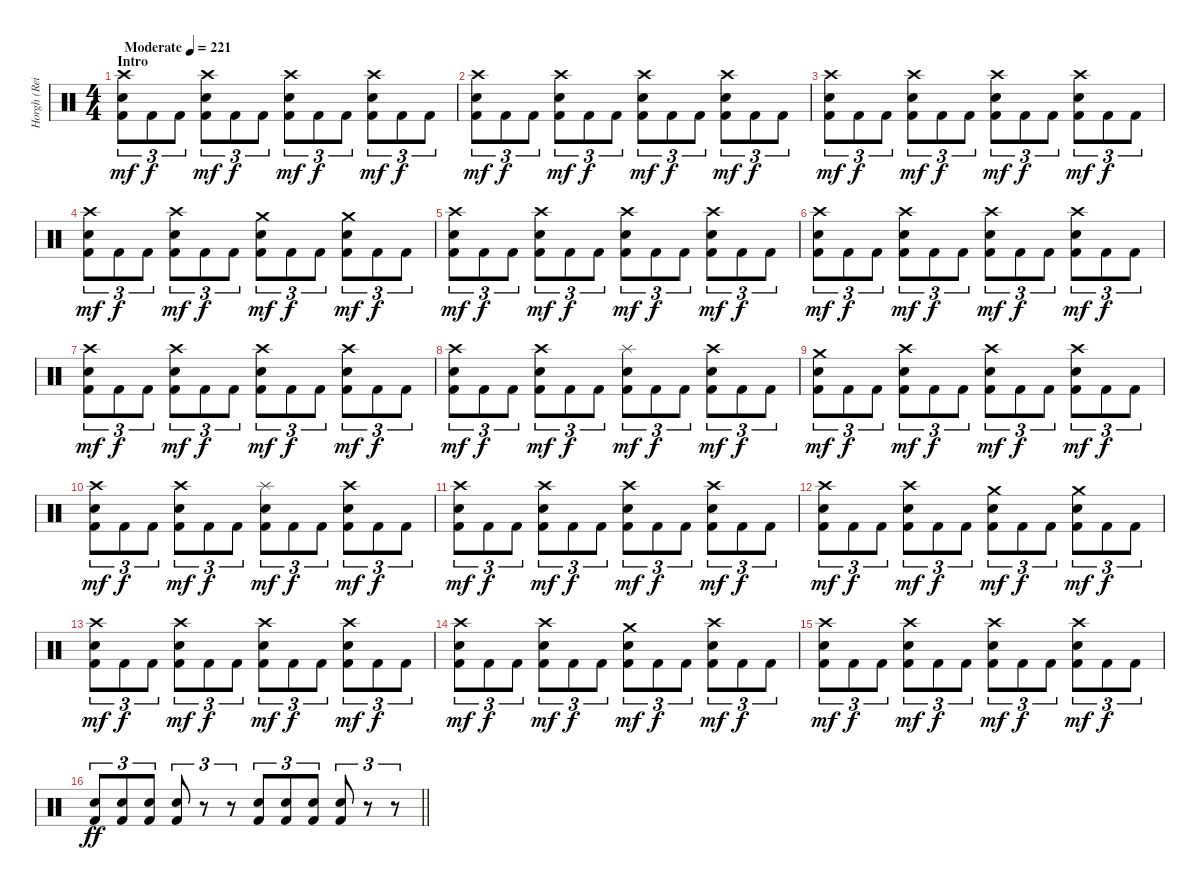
\track ("Horgh (Reidar Horghagen)" "Horgh (Rei") {instrument percussion}
\staff {score}
\articulation defaults
\ts (4 4)
\section ("" "Intro")
\tempo (221 "Moderate")
\clef neutral
\ks c
("Crash high (hit)" "Snare (hit) 2" "Kick (hit) 2").8{tu (3 2) dy mf} "Kick (hit) 2".8{tu (3 2) dy f} "Kick (hit) 2".8{tu (3 2)} ("Crash high (hit)" "Snare (hit) 2" "Kick (hit) 2").8{tu (3 2) dy mf} "Kick (hit) 2".8{tu (3 2) dy f} "Kick (hit) 2".8{tu (3 2)} ("Crash high (hit)" "Snare (hit) 2" "Kick (hit) 2").8{tu (3 2) dy mf} "Kick (hit) 2".8{tu (3 2) dy f} "Kick (hit) 2".8{tu (3 2)} ("Crash high (hit)" "Snare (hit) 2" "Kick (hit) 2").8{tu (3 2) dy mf} "Kick (hit) 2".8{tu (3 2) dy f} "Kick (hit) 2".8{tu (3 2)} |
("Crash high (hit)" "Snare (hit) 2" "Kick (hit) 2").8{tu (3 2) dy mf} "Kick (hit) 2".8{tu (3 2) dy f} "Kick (hit) 2".8{tu (3 2)} ("Crash high (hit)" "Snare (hit) 2" "Kick (hit) 2").8{tu (3 2) dy mf} "Kick (hit) 2".8{tu (3 2) dy f} "Kick (hit) 2".8{tu (3 2)} ("Crash high (hit)" "Snare (hit) 2" "Kick (hit) 2").8{tu (3 2) dy mf} "Kick (hit) 2".8{tu (3 2) dy f} "Kick (hit) 2".8{tu (3 2)} ("Crash high (hit)" "Snare (hit) 2" "Kick (hit) 2").8{tu (3 2) dy mf} "Kick (hit) 2".8{tu (3 2) dy f} "Kick (hit) 2".8{tu (3 2)} |
("Crash high (hit)" "Snare (hit) 2" "Kick (hit) 2").8{tu (3 2) dy mf} "Kick (hit) 2".8{tu (3 2) dy f} "Kick (hit) 2".8{tu (3 2)} ("Crash high (hit)" "Snare (hit) 2" "Kick (hit) 2").8{tu (3 2) dy mf} "Kick (hit) 2".8{tu (3 2) dy f} "Kick (hit) 2".8{tu (3 2)} ("Crash high (hit)" "Snare (hit) 2" "Kick (hit) 2").8{tu (3 2) dy mf} "Kick (hit) 2".8{tu (3 2) dy f} "Kick (hit) 2".8{tu (3 2)} ("Crash high (hit)" "Snare (hit) 2" "Kick (hit) 2").8{tu (3 2) dy mf} "Kick (hit) 2".8{tu (3 2) dy f} "Kick (hit) 2".8{tu (3 2)} |
("Crash high (hit)" "Snare (hit) 2" "Kick (hit) 2").8{tu (3 2) dy mf} "Kick (hit) 2".8{tu (3 2) dy f} "Kick (hit) 2".8{tu (3 2)} ("Crash high (hit)" "Snare (hit) 2" "Kick (hit) 2").8{tu (3 2) dy mf} "Kick (hit) 2".8{tu (3 2) dy f} "Kick (hit) 2".8{tu (3 2)} ("Crash medium (hit)" "Snare (hit) 2" "Kick (hit) 2").8{tu (3 2) dy mf} "Kick (hit) 2".8{tu (3 2) dy f} "Kick (hit) 2".8{tu (3 2)} ("Crash medium (hit)" "Snare (hit) 2" "Kick (hit) 2").8{tu (3 2) dy mf} "Kick (hit) 2".8{tu (3 2) dy f} "Kick (hit) 2".8{tu (3 2)} |
("Crash high (hit)" "Snare (hit) 2" "Kick (hit) 2").8{tu (3 2) dy mf} "Kick (hit) 2".8{tu (3 2) dy f} "Kick (hit) 2".8{tu (3 2)} ("Crash high (hit)" "Snare (hit) 2" "Kick (hit) 2").8{tu (3 2) dy mf} "Kick (hit) 2".8{tu (3 2) dy f} "Kick (hit) 2".8{tu (3 2)} ("Crash high (hit)" "Snare (hit) 2" "Kick (hit) 2").8{tu (3 2) dy mf} "Kick (hit) 2".8{tu (3 2) dy f} "Kick (hit) 2".8{tu (3 2)} ("Crash high (hit)" "Snare (hit) 2" "Kick (hit) 2").8{tu (3 2) dy mf} "Kick (hit) 2".8{tu (3 2) dy f} "Kick (hit) 2".8{tu (3 2)} |
("Crash high (hit)" "Snare (hit) 2" "Kick (hit) 2").8{tu (3 2) dy mf} "Kick (hit) 2".8{tu (3 2) dy f} "Kick (hit) 2".8{tu (3 2)} ("Crash high (hit)" "Snare (hit) 2" "Kick (hit) 2").8{tu (3 2) dy mf} "Kick (hit) 2".8{tu (3 2) dy f} "Kick (hit) 2".8{tu (3 2)} ("Crash high (hit)" "Snare (hit) 2" "Kick (hit) 2").8{tu (3 2) dy mf} "Kick (hit) 2".8{tu (3 2) dy f} "Kick (hit) 2".8{tu (3 2)} ("Crash high (hit)" "Snare (hit) 2" "Kick (hit) 2").8{tu (3 2) dy mf} "Kick (hit) 2".8{tu (3 2) dy f} "Kick (hit) 2".8{tu (3 2)} |
("Crash high (hit)" "Snare (hit) 2" "Kick (hit) 2").8{tu (3 2) dy mf} "Kick (hit) 2".8{tu (3 2) dy f} "Kick (hit) 2".8{tu (3 2)} ("Crash high (hit)" "Snare (hit) 2" "Kick (hit) 2").8{tu (3 2) dy mf} "Kick (hit) 2".8{tu (3 2) dy f} "Kick (hit) 2".8{tu (3 2)} ("Crash high (hit)" "Snare (hit) 2" "Kick (hit) 2").8{tu (3 2) dy mf} "Kick (hit) 2".8{tu (3 2) dy f} "Kick (hit) 2".8{tu (3 2)} ("Crash high (hit)" "Snare (hit) 2" "Kick (hit) 2").8{tu (3 2) dy mf} "Kick (hit) 2".8{tu (3 2) dy f} "Kick (hit) 2".8{tu (3 2)} |
("Crash high (hit)" "Snare (hit) 2" "Kick (hit) 2").8{tu (3 2) dy mf} "Kick (hit) 2".8{tu (3 2) dy f} "Kick (hit) 2".8{tu (3 2)} ("Crash high (hit)" "Snare (hit) 2" "Kick (hit) 2").8{tu (3 2) dy mf} "Kick (hit) 2".8{tu (3 2) dy f} "Kick (hit) 2".8{tu (3 2)} ("Splash (hit)" "Snare (hit) 2" "Kick (hit) 2").8{tu (3 2) dy mf} "Kick (hit) 2".8{tu (3 2) dy f} "Kick (hit) 2".8{tu (3 2)} ("Crash high (hit)" "Snare (hit) 2" "Kick (hit) 2").8{tu (3 2) dy mf} "Kick (hit) 2".8{tu (3 2) dy f} "Kick (hit) 2".8{tu (3 2)} |
("Crash medium (hit)" "Snare (hit) 2" "Kick (hit) 2").8{tu (3 2) dy mf} "Kick (hit) 2".8{tu (3 2) dy f} "Kick (hit) 2".8{tu (3 2)} ("Crash high (hit)" "Snare (hit) 2" "Kick (hit) 2").8{tu (3 2) dy mf} "Kick (hit) 2".8{tu (3 2) dy f} "Kick (hit) 2".8{tu (3 2)} ("Crash high (hit)" "Snare (hit) 2" "Kick (hit) 2").8{tu (3 2) dy mf} "Kick (hit) 2".8{tu (3 2) dy f} "Kick (hit) 2".8{tu (3 2)} ("Crash high (hit)" "Snare (hit) 2" "Kick (hit) 2").8{tu (3 2) dy mf} "Kick (hit) 2".8{tu (3 2) dy f} "Kick (hit) 2".8{tu (3 2)} |
("Crash high (hit)" "Snare (hit) 2" "Kick (hit) 2").8{tu (3 2) dy mf} "Kick (hit) 2".8{tu (3 2) dy f} "Kick (hit) 2".8{tu (3 2)} ("Crash high (hit)" "Snare (hit) 2" "Kick (hit) 2").8{tu (3 2) dy mf} "Kick (hit) 2".8{tu (3 2) dy f} "Kick (hit) 2".8{tu (3 2)} ("Splash (hit)" "Snare (hit) 2" "Kick (hit) 2").8{tu (3 2) dy mf} "Kick (hit) 2".8{tu (3 2) dy f} "Kick (hit) 2".8{tu (3 2)} ("Crash high (hit)" "Snare (hit) 2" "Kick (hit) 2").8{tu (3 2) dy mf} "Kick (hit) 2".8{tu (3 2) dy f} "Kick (hit) 2".8{tu (3 2)} |
("Crash high (hit)" "Snare (hit) 2" "Kick (hit) 2").8{tu (3 2) dy mf} "Kick (hit) 2".8{tu (3 2) dy f} "Kick (hit) 2".8{tu (3 2)} ("Crash high (hit)" "Snare (hit) 2" "Kick (hit) 2").8{tu (3 2) dy mf} "Kick (hit) 2".8{tu (3 2) dy f} "Kick (hit) 2".8{tu (3 2)} ("Crash high (hit)" "Snare (hit) 2" "Kick (hit) 2").8{tu (3 2) dy mf} "Kick (hit) 2".8{tu (3 2) dy f} "Kick (hit) 2".8{tu (3 2)} ("Crash high (hit)" "Snare (hit) 2" "Kick (hit) 2").8{tu (3 2) dy mf} "Kick (hit) 2".8{tu (3 2) dy f} "Kick (hit) 2".8{tu (3 2)} |
("Crash high (hit)" "Snare (hit) 2" "Kick (hit) 2").8{tu (3 2) dy mf} "Kick (hit) 2".8{tu (3 2) dy f} "Kick (hit) 2".8{tu (3 2)} ("Crash high (hit)" "Snare (hit) 2" "Kick (hit) 2").8{tu (3 2) dy mf} "Kick (hit) 2".8{tu (3 2) dy f} "Kick (hit) 2".8{tu (3 2)} ("Crash medium (hit)" "Snare (hit) 2" "Kick (hit) 2").8{tu (3 2) dy mf} "Kick (hit) 2".8{tu (3 2) dy f} "Kick (hit) 2".8{tu (3 2)} ("Crash medium (hit)" "Snare (hit) 2" "Kick (hit) 2").8{tu (3 2) dy mf} "Kick (hit) 2".8{tu (3 2) dy f} "Kick (hit) 2".8{tu (3 2)} |
("Crash high (hit)" "Snare (hit) 2" "Kick (hit) 2").8{tu (3 2) dy mf} "Kick (hit) 2".8{tu (3 2) dy f} "Kick (hit) 2".8{tu (3 2)} ("Crash high (hit)" "Snare (hit) 2" "Kick (hit) 2").8{tu (3 2) dy mf} "Kick (hit) 2".8{tu (3 2) dy f} "Kick (hit) 2".8{tu (3 2)} ("Crash high (hit)" "Snare (hit) 2" "Kick (hit) 2").8{tu (3 2) dy mf} "Kick (hit) 2".8{tu (3 2) dy f} "Kick (hit) 2".8{tu (3 2)} ("Crash high (hit)" "Snare (hit) 2" "Kick (hit) 2").8{tu (3 2) dy mf} "Kick (hit) 2".8{tu (3 2) dy f} "Kick (hit) 2".8{tu (3 2)} |
("Crash high (hit)" "Snare (hit) 2" "Kick (hit) 2").8{tu (3 2) dy mf} "Kick (hit) 2".8{tu (3 2) dy f} "Kick (hit) 2".8{tu (3 2)} ("Crash high (hit)" "Snare (hit) 2" "Kick (hit) 2").8{tu (3 2) dy mf} "Kick (hit) 2".8{tu (3 2) dy f} "Kick (hit) 2".8{tu (3 2)} ("Crash medium (hit)" "Snare (hit) 2" "Kick (hit) 2").8{tu (3 2) dy mf} "Kick (hit) 2".8{tu (3 2) dy f} "Kick (hit) 2".8{tu (3 2)} ("Crash high (hit)" "Snare (hit) 2" "Kick (hit) 2").8{tu (3 2) dy mf} "Kick (hit) 2".8{tu (3 2) dy f} "Kick (hit) 2".8{tu (3 2)} |
("Crash high (hit)" "Snare (hit) 2" "Kick (hit) 2").8{tu (3 2) dy mf} "Kick (hit) 2".8{tu (3 2) dy f} "Kick (hit) 2".8{tu (3 2)} ("Crash high (hit)" "Snare (hit) 2" "Kick (hit) 2").8{tu (3 2) dy mf} "Kick (hit) 2".8{tu (3 2) dy f} "Kick (hit) 2".8{tu (3 2)} ("Crash high (hit)" "Snare (hit) 2" "Kick (hit) 2").8{tu (3 2) dy mf} "Kick (hit) 2".8{tu (3 2) dy f} "Kick (hit) 2".8{tu (3 2)} ("Crash high (hit)" "Snare (hit) 2" "Kick (hit) 2").8{tu (3 2) dy mf} "Kick (hit) 2".8{tu (3 2) dy f} "Kick (hit) 2".8{tu (3 2)} |
\barLineRight lightlight
("Snare (hit) 2" "Kick (hit) 2").8{tu (3 2) dy ff} ("Snare (hit) 2" "Kick (hit) 2").8{tu (3 2)} ("Snare (hit) 2" "Kick (hit) 2").8{tu (3 2)} ("Snare (hit) 2" "Kick (hit) 2").8{tu (3 2)} r.8{tu (3 2)} r.8{tu (3 2)} ("Snare (hit) 2" "Kick (hit) 2").8{tu (3 2)} ("Snare (hit) 2" "Kick (hit) 2").8{tu (3 2)} ("Snare (hit) 2" "Kick (hit) 2").8{tu (3 2)} ("Snare (hit) 2" "Kick (hit) 2").8{tu (3 2)} r.8{tu (3 2)} r.8{tu (3 2)}
